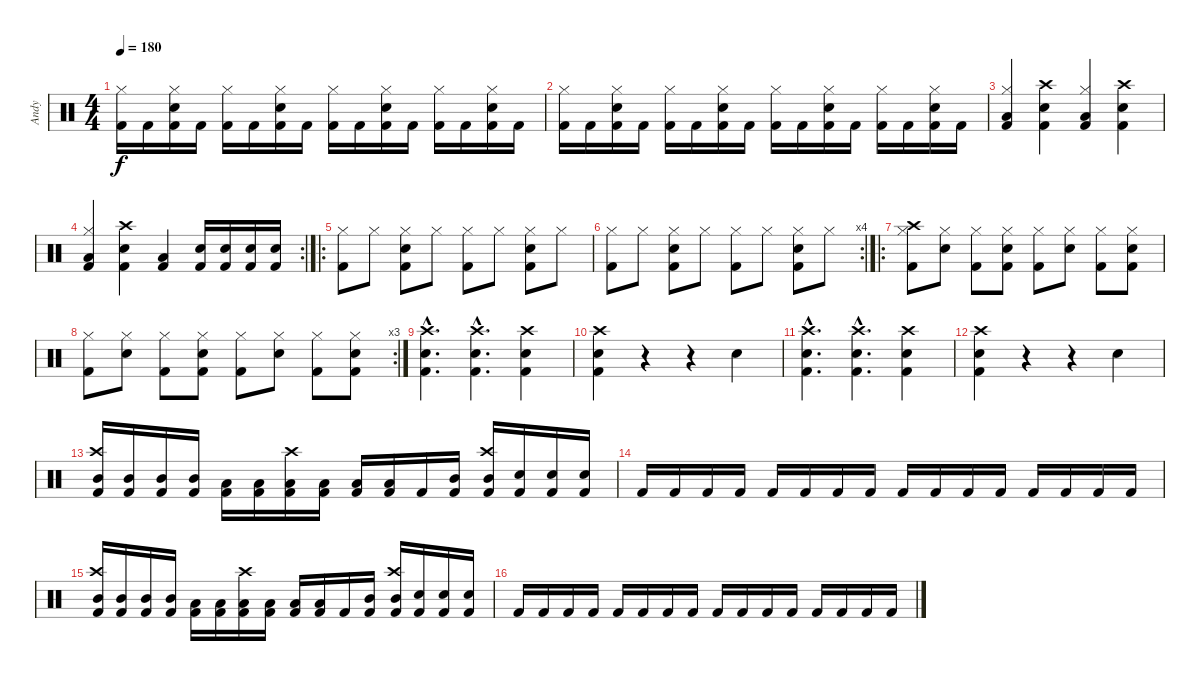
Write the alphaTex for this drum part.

\track ("Andy" "Andy") {instrument percussion}
\staff {score}
\articulation defaults
\ts (4 4)
\tempo 180
\clef neutral
\ks c
("Kick (hit) 2" "Hi-Hat (closed)").16{dy f} "Kick (hit) 2".16 ("Kick (hit) 2" "Hi-Hat (closed)" "Electric Snare (hit)").16 "Kick (hit) 2".16 ("Kick (hit) 2" "Hi-Hat (closed)").16 "Kick (hit) 2".16 ("Kick (hit) 2" "Hi-Hat (closed)" "Electric Snare (hit)").16 "Kick (hit) 2".16 ("Kick (hit) 2" "Hi-Hat (closed)").16 "Kick (hit) 2".16 ("Kick (hit) 2" "Hi-Hat (closed)" "Electric Snare (hit)").16 "Kick (hit) 2".16 ("Kick (hit) 2" "Hi-Hat (closed)").16 "Kick (hit) 2".16 ("Kick (hit) 2" "Hi-Hat (closed)" "Electric Snare (hit)").16 "Kick (hit) 2".16 |
("Kick (hit) 2" "Hi-Hat (closed)").16 "Kick (hit) 2".16 ("Kick (hit) 2" "Hi-Hat (closed)" "Electric Snare (hit)").16 "Kick (hit) 2".16 ("Kick (hit) 2" "Hi-Hat (closed)").16 "Kick (hit) 2".16 ("Kick (hit) 2" "Hi-Hat (closed)" "Electric Snare (hit)").16 "Kick (hit) 2".16 ("Kick (hit) 2" "Hi-Hat (closed)").16 "Kick (hit) 2".16 ("Kick (hit) 2" "Hi-Hat (closed)" "Electric Snare (hit)").16 "Kick (hit) 2".16 ("Kick (hit) 2" "Hi-Hat (closed)").16 "Kick (hit) 2".16 ("Kick (hit) 2" "Hi-Hat (closed)" "Electric Snare (hit)").16 "Kick (hit) 2".16 |
("Kick (hit) 2" "Low Tom (hit)" "Hi-Hat (closed)").4 ("Kick (hit) 2" "Electric Snare (hit)" "Crash high (hit)").4 ("Kick (hit) 2" "Low Tom (hit)" "Hi-Hat (closed)").4 ("Kick (hit) 2" "Electric Snare (hit)" "Crash high (hit)").4 |
\rc 2
("Kick (hit) 2" "Low Tom (hit)" "Hi-Hat (closed)").4 ("Kick (hit) 2" "Electric Snare (hit)" "Crash high (hit)").4 ("Kick (hit) 2" "Low Tom (hit)").4 ("Kick (hit) 2" "Electric Snare (hit)").16 ("Kick (hit) 2" "Electric Snare (hit)").16 ("Kick (hit) 2" "Electric Snare (hit)").16 ("Kick (hit) 2" "Electric Snare (hit)").16 |
\ro
("Hi-Hat (closed)" "Kick (hit) 2").8 "Hi-Hat (closed)".8 ("Hi-Hat (closed)" "Electric Snare (hit)" "Kick (hit) 2").8 "Hi-Hat (closed)".8 ("Hi-Hat (closed)" "Kick (hit) 2").8 "Hi-Hat (closed)".8 ("Hi-Hat (closed)" "Electric Snare (hit)" "Kick (hit) 2").8 "Hi-Hat (closed)".8 |
\rc 4
("Hi-Hat (closed)" "Kick (hit) 2").8 "Hi-Hat (closed)".8 ("Hi-Hat (closed)" "Electric Snare (hit)" "Kick (hit) 2").8 "Hi-Hat (closed)".8 ("Hi-Hat (closed)" "Kick (hit) 2").8 "Hi-Hat (closed)".8 ("Hi-Hat (closed)" "Electric Snare (hit)" "Kick (hit) 2").8 "Hi-Hat (closed)".8 |
\ro
("Hi-Hat (closed)" "Kick (hit) 2" "Crash high (hit)").8 ("Hi-Hat (closed)" "Electric Snare (hit)").8 ("Hi-Hat (closed)" "Kick (hit) 2").8 ("Hi-Hat (closed)" "Electric Snare (hit)" "Kick (hit) 2").8 ("Hi-Hat (closed)" "Kick (hit) 2").8 ("Hi-Hat (closed)" "Electric Snare (hit)").8 ("Hi-Hat (closed)" "Kick (hit) 2").8 ("Hi-Hat (closed)" "Electric Snare (hit)" "Kick (hit) 2").8 |
\rc 3
("Hi-Hat (closed)" "Kick (hit) 2").8 ("Hi-Hat (closed)" "Electric Snare (hit)").8 ("Hi-Hat (closed)" "Kick (hit) 2").8 ("Hi-Hat (closed)" "Electric Snare (hit)" "Kick (hit) 2").8 ("Hi-Hat (closed)" "Kick (hit) 2").8 ("Hi-Hat (closed)" "Electric Snare (hit)").8 ("Hi-Hat (closed)" "Kick (hit) 2").8 ("Hi-Hat (closed)" "Electric Snare (hit)" "Kick (hit) 2").8 |
("Electric Snare (hit)"{hac} "Crash high (hit)"{hac} "Kick (hit) 2"{hac}).4{d} ("Electric Snare (hit)"{hac} "Crash high (hit)"{hac} "Kick (hit) 2"{hac}).4{d} ("Electric Snare (hit)" "Crash high (hit)" "Kick (hit) 2").4 |
("Electric Snare (hit)" "Crash high (hit)" "Kick (hit) 2").4 r.4 r.4 "Electric Snare (hit)".4 |
("Electric Snare (hit)"{hac} "Crash high (hit)"{hac} "Kick (hit) 2"{hac}).4{d} ("Electric Snare (hit)"{hac} "Crash high (hit)"{hac} "Kick (hit) 2"{hac}).4{d} ("Electric Snare (hit)" "Crash high (hit)" "Kick (hit) 2").4 |
("Electric Snare (hit)" "Crash high (hit)" "Kick (hit) 2").4 r.4 r.4 "Electric Snare (hit)".4 |
("Kick (hit) 2" "Crash high (hit)" "Mid Tom (hit)").16 ("Kick (hit) 2" "Mid Tom (hit)").16 ("Kick (hit) 2" "Mid Tom (hit)").16 ("Kick (hit) 2" "Mid Tom (hit)").16 ("Kick (hit) 2" "Low Tom (hit)").16 ("Kick (hit) 2" "Low Tom (hit)").16 ("Kick (hit) 2" "Crash high (hit)" "Low Tom (hit)").16 ("Kick (hit) 2" "Low Tom (hit)").16 ("Kick (hit) 2" "Low Tom (hit)").16 ("Kick (hit) 2" "Low Tom (hit)").16 "Kick (hit) 2".16 ("Kick (hit) 2" "Mid Tom (hit)").16 ("Kick (hit) 2" "Crash high (hit)" "Mid Tom (hit)").16 ("Kick (hit) 2" "Electric Snare (hit)").16 ("Kick (hit) 2" "Electric Snare (hit)").16 ("Kick (hit) 2" "Electric Snare (hit)").16 |
"Kick (hit) 2".16 "Kick (hit) 2".16 "Kick (hit) 2".16 "Kick (hit) 2".16 "Kick (hit) 2".16 "Kick (hit) 2".16 "Kick (hit) 2".16 "Kick (hit) 2".16 "Kick (hit) 2".16 "Kick (hit) 2".16 "Kick (hit) 2".16 "Kick (hit) 2".16 "Kick (hit) 2".16 "Kick (hit) 2".16 "Kick (hit) 2".16 "Kick (hit) 2".16 |
("Kick (hit) 2" "Crash high (hit)" "Mid Tom (hit)").16 ("Kick (hit) 2" "Mid Tom (hit)").16 ("Kick (hit) 2" "Mid Tom (hit)").16 ("Kick (hit) 2" "Mid Tom (hit)").16 ("Kick (hit) 2" "Low Tom (hit)").16 ("Kick (hit) 2" "Low Tom (hit)").16 ("Kick (hit) 2" "Crash high (hit)" "Low Tom (hit)").16 ("Kick (hit) 2" "Low Tom (hit)").16 ("Kick (hit) 2" "Low Tom (hit)").16 ("Kick (hit) 2" "Low Tom (hit)").16 "Kick (hit) 2".16 ("Kick (hit) 2" "Mid Tom (hit)").16 ("Kick (hit) 2" "Crash high (hit)" "Mid Tom (hit)").16 ("Kick (hit) 2" "Electric Snare (hit)").16 ("Kick (hit) 2" "Electric Snare (hit)").16 ("Kick (hit) 2" "Electric Snare (hit)").16 |
"Kick (hit) 2".16 "Kick (hit) 2".16 "Kick (hit) 2".16 "Kick (hit) 2".16 "Kick (hit) 2".16 "Kick (hit) 2".16 "Kick (hit) 2".16 "Kick (hit) 2".16 "Kick (hit) 2".16 "Kick (hit) 2".16 "Kick (hit) 2".16 "Kick (hit) 2".16 "Kick (hit) 2".16 "Kick (hit) 2".16 "Kick (hit) 2".16 "Kick (hit) 2".16
